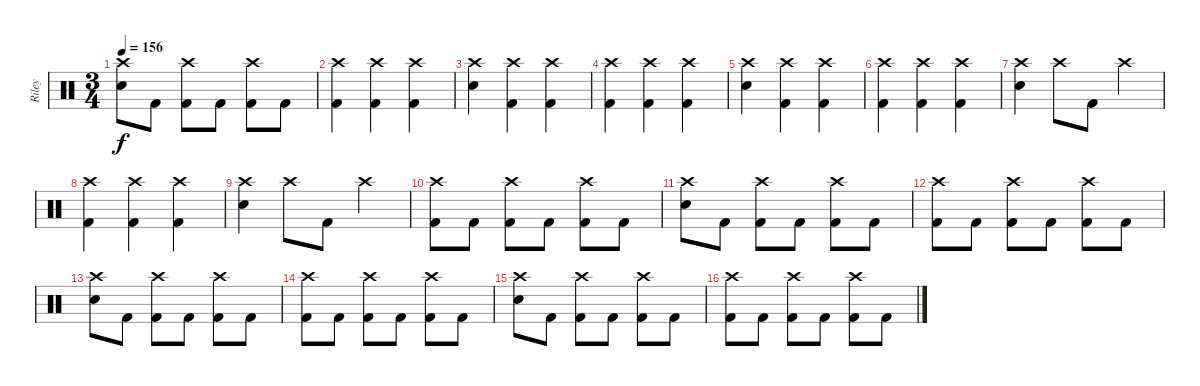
\track ("Riley" "Riley") {instrument percussion}
\staff {score}
\articulation defaults
\ts (3 4)
\tempo 156
\clef neutral
\ks c
("Crash high (hit)" "Electric Snare (hit)").8{dy f} "Kick (hit) 2".8 ("Crash high (hit)" "Kick (hit) 2").8 "Kick (hit) 2".8 ("Crash high (hit)" "Kick (hit) 2").8 "Kick (hit) 2".8 |
("Crash high (hit)" "Kick (hit) 2").4 ("Crash high (hit)" "Kick (hit) 2").4 ("Crash high (hit)" "Kick (hit) 2").4 |
("Crash high (hit)" "Electric Snare (hit)").4 ("Crash high (hit)" "Kick (hit) 2").4 ("Crash high (hit)" "Kick (hit) 2").4 |
("Crash high (hit)" "Kick (hit) 2").4 ("Crash high (hit)" "Kick (hit) 2").4 ("Crash high (hit)" "Kick (hit) 2").4 |
("Crash high (hit)" "Electric Snare (hit)").4 ("Crash high (hit)" "Kick (hit) 2").4 ("Crash high (hit)" "Kick (hit) 2").4 |
("Crash high (hit)" "Kick (hit) 2").4 ("Crash high (hit)" "Kick (hit) 2").4 ("Crash high (hit)" "Kick (hit) 2").4 |
("Crash high (hit)" "Electric Snare (hit)").4 "Crash high (hit)".8 "Kick (hit) 2".8 "Crash high (hit)".4 |
("Crash high (hit)" "Kick (hit) 2").4 ("Crash high (hit)" "Kick (hit) 2").4 ("Crash high (hit)" "Kick (hit) 2").4 |
("Crash high (hit)" "Electric Snare (hit)").4 "Crash high (hit)".8 "Kick (hit) 2".8 "Crash high (hit)".4 |
("Crash high (hit)" "Kick (hit) 2").8 "Kick (hit) 2".8 ("Crash high (hit)" "Kick (hit) 2").8 "Kick (hit) 2".8 ("Crash high (hit)" "Kick (hit) 2").8 "Kick (hit) 2".8 |
("Crash high (hit)" "Electric Snare (hit)").8 "Kick (hit) 2".8 ("Crash high (hit)" "Kick (hit) 2").8 "Kick (hit) 2".8 ("Crash high (hit)" "Kick (hit) 2").8 "Kick (hit) 2".8 |
("Crash high (hit)" "Kick (hit) 2").8 "Kick (hit) 2".8 ("Crash high (hit)" "Kick (hit) 2").8 "Kick (hit) 2".8 ("Crash high (hit)" "Kick (hit) 2").8 "Kick (hit) 2".8 |
("Crash high (hit)" "Electric Snare (hit)").8 "Kick (hit) 2".8 ("Crash high (hit)" "Kick (hit) 2").8 "Kick (hit) 2".8 ("Crash high (hit)" "Kick (hit) 2").8 "Kick (hit) 2".8 |
("Crash high (hit)" "Kick (hit) 2").8 "Kick (hit) 2".8 ("Crash high (hit)" "Kick (hit) 2").8 "Kick (hit) 2".8 ("Crash high (hit)" "Kick (hit) 2").8 "Kick (hit) 2".8 |
("Crash high (hit)" "Electric Snare (hit)").8 "Kick (hit) 2".8 ("Crash high (hit)" "Kick (hit) 2").8 "Kick (hit) 2".8 ("Crash high (hit)" "Kick (hit) 2").8 "Kick (hit) 2".8 |
("Crash high (hit)" "Kick (hit) 2").8 "Kick (hit) 2".8 ("Crash high (hit)" "Kick (hit) 2").8 "Kick (hit) 2".8 ("Crash high (hit)" "Kick (hit) 2").8 "Kick (hit) 2".8
